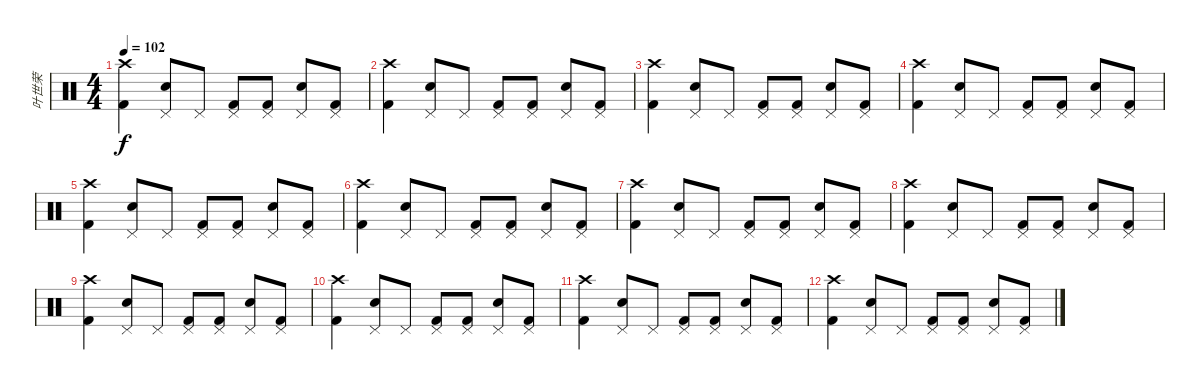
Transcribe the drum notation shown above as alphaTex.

\track ("叶世荣" "叶世荣") {instrument percussion}
\staff {score}
\articulation defaults
\ts (4 4)
\tempo 102
\clef neutral
\ks c
("Crash high (hit)" "Kick (hit) 2").4{dy f} ("Pedal Hi-Hat (hit)" "Snare (hit) 2").8 "Pedal Hi-Hat (hit)".8 ("Pedal Hi-Hat (hit)" "Kick (hit) 2").8 ("Pedal Hi-Hat (hit)" "Kick (hit) 2").8 ("Pedal Hi-Hat (hit)" "Snare (hit) 2").8 ("Pedal Hi-Hat (hit)" "Kick (hit) 2").8 |
("Crash high (hit)" "Kick (hit) 2").4 ("Pedal Hi-Hat (hit)" "Snare (hit) 2").8 "Pedal Hi-Hat (hit)".8 ("Pedal Hi-Hat (hit)" "Kick (hit) 2").8 ("Pedal Hi-Hat (hit)" "Kick (hit) 2").8 ("Pedal Hi-Hat (hit)" "Snare (hit) 2").8 ("Pedal Hi-Hat (hit)" "Kick (hit) 2").8 |
("Crash high (hit)" "Kick (hit) 2").4 ("Pedal Hi-Hat (hit)" "Snare (hit) 2").8 "Pedal Hi-Hat (hit)".8 ("Pedal Hi-Hat (hit)" "Kick (hit) 2").8 ("Pedal Hi-Hat (hit)" "Kick (hit) 2").8 ("Pedal Hi-Hat (hit)" "Snare (hit) 2").8 ("Pedal Hi-Hat (hit)" "Kick (hit) 2").8 |
("Crash high (hit)" "Kick (hit) 2").4 ("Pedal Hi-Hat (hit)" "Snare (hit) 2").8 "Pedal Hi-Hat (hit)".8 ("Pedal Hi-Hat (hit)" "Kick (hit) 2").8 ("Pedal Hi-Hat (hit)" "Kick (hit) 2").8 ("Pedal Hi-Hat (hit)" "Snare (hit) 2").8 ("Pedal Hi-Hat (hit)" "Kick (hit) 2").8 |
("Crash high (hit)" "Kick (hit) 2").4 ("Pedal Hi-Hat (hit)" "Snare (hit) 2").8 "Pedal Hi-Hat (hit)".8 ("Pedal Hi-Hat (hit)" "Kick (hit) 2").8 ("Pedal Hi-Hat (hit)" "Kick (hit) 2").8 ("Pedal Hi-Hat (hit)" "Snare (hit) 2").8 ("Pedal Hi-Hat (hit)" "Kick (hit) 2").8 |
("Crash high (hit)" "Kick (hit) 2").4 ("Pedal Hi-Hat (hit)" "Snare (hit) 2").8 "Pedal Hi-Hat (hit)".8 ("Pedal Hi-Hat (hit)" "Kick (hit) 2").8 ("Pedal Hi-Hat (hit)" "Kick (hit) 2").8 ("Pedal Hi-Hat (hit)" "Snare (hit) 2").8 ("Pedal Hi-Hat (hit)" "Kick (hit) 2").8 |
("Crash high (hit)" "Kick (hit) 2").4 ("Pedal Hi-Hat (hit)" "Snare (hit) 2").8 "Pedal Hi-Hat (hit)".8 ("Pedal Hi-Hat (hit)" "Kick (hit) 2").8 ("Pedal Hi-Hat (hit)" "Kick (hit) 2").8 ("Pedal Hi-Hat (hit)" "Snare (hit) 2").8 ("Pedal Hi-Hat (hit)" "Kick (hit) 2").8 |
("Crash high (hit)" "Kick (hit) 2").4 ("Pedal Hi-Hat (hit)" "Snare (hit) 2").8 "Pedal Hi-Hat (hit)".8 ("Pedal Hi-Hat (hit)" "Kick (hit) 2").8 ("Pedal Hi-Hat (hit)" "Kick (hit) 2").8 ("Pedal Hi-Hat (hit)" "Snare (hit) 2").8 ("Pedal Hi-Hat (hit)" "Kick (hit) 2").8 |
("Crash high (hit)" "Kick (hit) 2").4 ("Pedal Hi-Hat (hit)" "Snare (hit) 2").8 "Pedal Hi-Hat (hit)".8 ("Pedal Hi-Hat (hit)" "Kick (hit) 2").8 ("Pedal Hi-Hat (hit)" "Kick (hit) 2").8 ("Pedal Hi-Hat (hit)" "Snare (hit) 2").8 ("Pedal Hi-Hat (hit)" "Kick (hit) 2").8 |
("Crash high (hit)" "Kick (hit) 2").4 ("Pedal Hi-Hat (hit)" "Snare (hit) 2").8 "Pedal Hi-Hat (hit)".8 ("Pedal Hi-Hat (hit)" "Kick (hit) 2").8 ("Pedal Hi-Hat (hit)" "Kick (hit) 2").8 ("Pedal Hi-Hat (hit)" "Snare (hit) 2").8 ("Pedal Hi-Hat (hit)" "Kick (hit) 2").8 |
("Crash high (hit)" "Kick (hit) 2").4 ("Pedal Hi-Hat (hit)" "Snare (hit) 2").8 "Pedal Hi-Hat (hit)".8 ("Pedal Hi-Hat (hit)" "Kick (hit) 2").8 ("Pedal Hi-Hat (hit)" "Kick (hit) 2").8 ("Pedal Hi-Hat (hit)" "Snare (hit) 2").8 ("Pedal Hi-Hat (hit)" "Kick (hit) 2").8 |
("Crash high (hit)" "Kick (hit) 2").4 ("Pedal Hi-Hat (hit)" "Snare (hit) 2").8 "Pedal Hi-Hat (hit)".8 ("Pedal Hi-Hat (hit)" "Kick (hit) 2").8 ("Pedal Hi-Hat (hit)" "Kick (hit) 2").8 ("Pedal Hi-Hat (hit)" "Snare (hit) 2").8 ("Pedal Hi-Hat (hit)" "Kick (hit) 2").8
